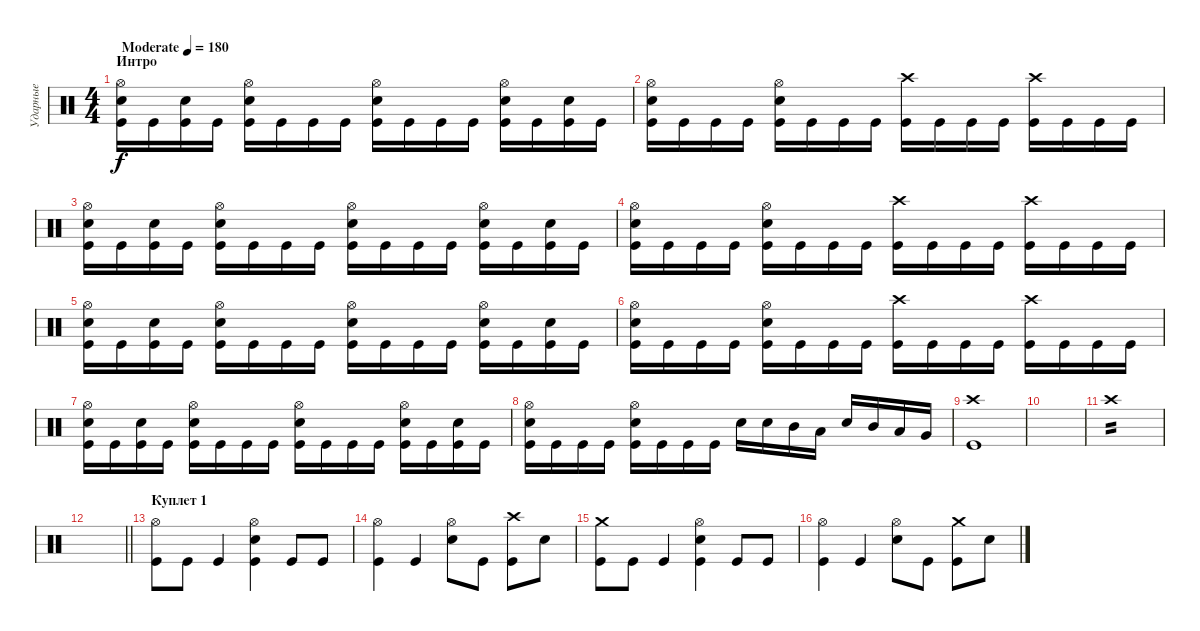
\track ("Ударные" "Ударные") {instrument percussion}
\staff {score}
\articulation defaults
\ts (4 4)
\section ("" "Интро")
\tempo (180 "Moderate")
\clef neutral
\ks c
("Hi-Hat (open)" "Kick (hit)" "Snare (hit) 2").16{dy f} "Kick (hit)".16 ("Kick (hit)" "Snare (hit) 2").16 "Kick (hit)".16 ("Kick (hit)" "Hi-Hat (open)" "Snare (hit) 2").16 "Kick (hit)".16 "Kick (hit)".16 "Kick (hit)".16 ("Kick (hit)" "Hi-Hat (open)" "Snare (hit) 2").16 "Kick (hit)".16 "Kick (hit)".16 "Kick (hit)".16 ("Kick (hit)" "Hi-Hat (open)" "Snare (hit) 2").16 "Kick (hit)".16 ("Kick (hit)" "Snare (hit) 2").16 "Kick (hit)".16 |
("Hi-Hat (open)" "Kick (hit)" "Snare (hit) 2").16 "Kick (hit)".16 "Kick (hit)".16 "Kick (hit)".16 ("Kick (hit)" "Hi-Hat (open)" "Snare (hit) 2").16 "Kick (hit)".16 "Kick (hit)".16 "Kick (hit)".16 ("Kick (hit)" "Crash high (hit)").16 "Kick (hit)".16 "Kick (hit)".16 "Kick (hit)".16 ("Kick (hit)" "Crash high (hit)").16 "Kick (hit)".16 "Kick (hit)".16 "Kick (hit)".16 |
("Hi-Hat (open)" "Kick (hit)" "Snare (hit) 2").16 "Kick (hit)".16 ("Kick (hit)" "Snare (hit) 2").16 "Kick (hit)".16 ("Kick (hit)" "Hi-Hat (open)" "Snare (hit) 2").16 "Kick (hit)".16 "Kick (hit)".16 "Kick (hit)".16 ("Kick (hit)" "Hi-Hat (open)" "Snare (hit) 2").16 "Kick (hit)".16 "Kick (hit)".16 "Kick (hit)".16 ("Kick (hit)" "Hi-Hat (open)" "Snare (hit) 2").16 "Kick (hit)".16 ("Kick (hit)" "Snare (hit) 2").16 "Kick (hit)".16 |
("Hi-Hat (open)" "Kick (hit)" "Snare (hit) 2").16 "Kick (hit)".16 "Kick (hit)".16 "Kick (hit)".16 ("Kick (hit)" "Hi-Hat (open)" "Snare (hit) 2").16 "Kick (hit)".16 "Kick (hit)".16 "Kick (hit)".16 ("Kick (hit)" "Crash high (hit)").16 "Kick (hit)".16 "Kick (hit)".16 "Kick (hit)".16 ("Kick (hit)" "Crash high (hit)").16 "Kick (hit)".16 "Kick (hit)".16 "Kick (hit)".16 |
("Hi-Hat (open)" "Kick (hit)" "Snare (hit) 2").16 "Kick (hit)".16 ("Kick (hit)" "Snare (hit) 2").16 "Kick (hit)".16 ("Kick (hit)" "Hi-Hat (open)" "Snare (hit) 2").16 "Kick (hit)".16 "Kick (hit)".16 "Kick (hit)".16 ("Kick (hit)" "Hi-Hat (open)" "Snare (hit) 2").16 "Kick (hit)".16 "Kick (hit)".16 "Kick (hit)".16 ("Kick (hit)" "Hi-Hat (open)" "Snare (hit) 2").16 "Kick (hit)".16 ("Kick (hit)" "Snare (hit) 2").16 "Kick (hit)".16 |
("Hi-Hat (open)" "Kick (hit)" "Snare (hit) 2").16 "Kick (hit)".16 "Kick (hit)".16 "Kick (hit)".16 ("Kick (hit)" "Hi-Hat (open)" "Snare (hit) 2").16 "Kick (hit)".16 "Kick (hit)".16 "Kick (hit)".16 ("Kick (hit)" "Crash high (hit)").16 "Kick (hit)".16 "Kick (hit)".16 "Kick (hit)".16 ("Kick (hit)" "Crash high (hit)").16 "Kick (hit)".16 "Kick (hit)".16 "Kick (hit)".16 |
("Hi-Hat (open)" "Kick (hit)" "Snare (hit) 2").16 "Kick (hit)".16 ("Kick (hit)" "Snare (hit) 2").16 "Kick (hit)".16 ("Kick (hit)" "Hi-Hat (open)" "Snare (hit) 2").16 "Kick (hit)".16 "Kick (hit)".16 "Kick (hit)".16 ("Kick (hit)" "Hi-Hat (open)" "Snare (hit) 2").16 "Kick (hit)".16 "Kick (hit)".16 "Kick (hit)".16 ("Kick (hit)" "Hi-Hat (open)" "Snare (hit) 2").16 "Kick (hit)".16 ("Kick (hit)" "Snare (hit) 2").16 "Kick (hit)".16 |
("Hi-Hat (open)" "Kick (hit)" "Snare (hit) 2").16 "Kick (hit)".16 "Kick (hit)".16 "Kick (hit)".16 ("Kick (hit)" "Hi-Hat (open)" "Snare (hit) 2").16 "Kick (hit)".16 "Kick (hit)".16 "Kick (hit)".16 "Snare (hit) 2".16 "Snare (hit) 2".16 "Mid Tom (hit)".16 "Low Tom (hit)".16 "Snare (hit) 2".16 "Mid Tom (hit)".16 "Low Tom (hit)".16 "Very Low Tom (hit)".16 |
("Kick (hit)" "Crash high (hit)").1 |
|
"Crash high (hit)".1{tp 2 volume 13} |
\barLineRight lightlight
|
\section ("" "Куплет 1")
("Kick (hit)" "Hi-Hat (open)").8 "Kick (hit)".8 "Kick (hit)".4 ("Kick (hit)" "Hi-Hat (open)" "Snare (hit) 2").4 "Kick (hit)".8 "Kick (hit)".8 |
("Kick (hit)" "Hi-Hat (open)").4 "Kick (hit)".4 ("Snare (hit) 2" "Hi-Hat (open)").8 "Kick (hit)".8 ("Kick (hit)" "Crash high (hit)").8 "Snare (hit) 2".8 |
("Kick (hit)" "Crash medium (hit)").8 "Kick (hit)".8 "Kick (hit)".4 ("Kick (hit)" "Hi-Hat (open)" "Snare (hit) 2").4 "Kick (hit)".8 "Kick (hit)".8 |
("Kick (hit)" "Hi-Hat (open)").4 "Kick (hit)".4 ("Snare (hit) 2" "Hi-Hat (open)").8 "Kick (hit)".8 ("Kick (hit)" "Crash medium (hit)").8 "Snare (hit) 2".8
